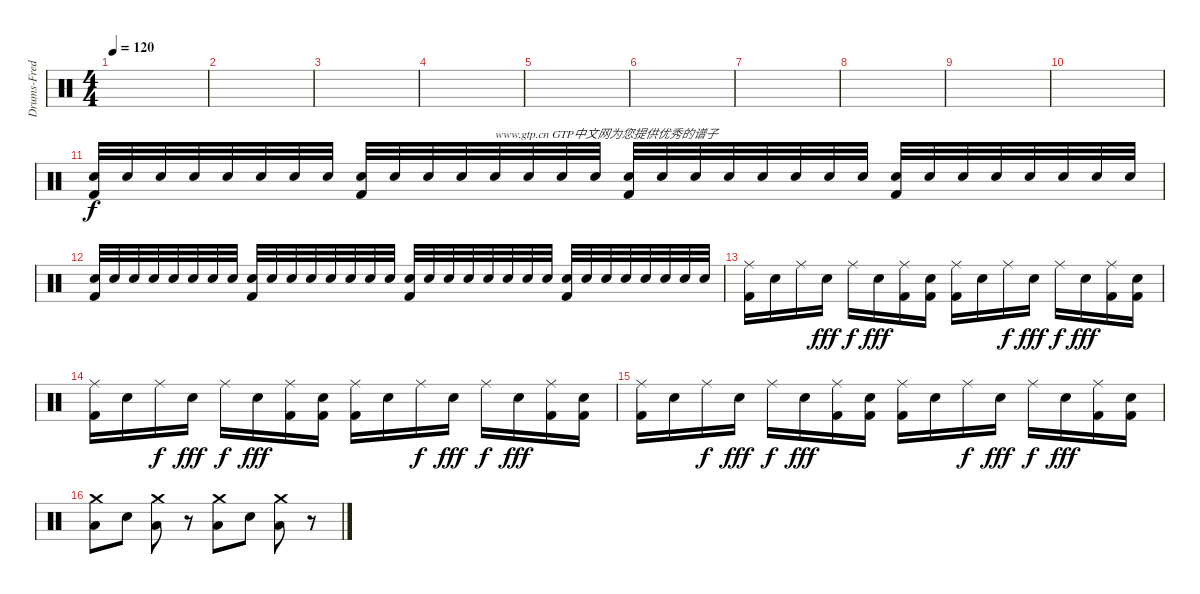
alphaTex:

\track ("Drums-Fred" "Drums-Fred") {instrument percussion}
\staff {score}
\articulation defaults
\ts (4 4)
\tempo 120
\clef neutral
\ks c
|
|
|
|
|
|
|
|
|
|
("Snare (hit) 2" "Kick (hit) 2").32 "Snare (hit) 2".32 "Snare (hit) 2".32 "Snare (hit) 2".32 "Snare (hit) 2".32 "Snare (hit) 2".32 "Snare (hit) 2".32 "Snare (hit) 2".32 ("Snare (hit) 2" "Kick (hit) 2").32 "Snare (hit) 2".32 "Snare (hit) 2".32 "Snare (hit) 2".32 "Snare (hit) 2".32{txt "www.gtp.cn GTP中文网为您提供优秀的谱子"} "Snare (hit) 2".32 "Snare (hit) 2".32 "Snare (hit) 2".32 ("Snare (hit) 2" "Kick (hit) 2").32 "Snare (hit) 2".32 "Snare (hit) 2".32 "Snare (hit) 2".32 "Snare (hit) 2".32 "Snare (hit) 2".32 "Snare (hit) 2".32 "Snare (hit) 2".32 ("Snare (hit) 2" "Kick (hit) 2").32 "Snare (hit) 2".32 "Snare (hit) 2".32 "Snare (hit) 2".32 "Snare (hit) 2".32 "Snare (hit) 2".32 "Snare (hit) 2".32 "Snare (hit) 2".32 |
("Snare (hit) 2" "Kick (hit) 2").32 "Snare (hit) 2".32 "Snare (hit) 2".32 "Snare (hit) 2".32 "Snare (hit) 2".32 "Snare (hit) 2".32 "Snare (hit) 2".32 "Snare (hit) 2".32 ("Snare (hit) 2" "Kick (hit) 2").32 "Snare (hit) 2".32 "Snare (hit) 2".32 "Snare (hit) 2".32 "Snare (hit) 2".32 "Snare (hit) 2".32 "Snare (hit) 2".32 "Snare (hit) 2".32 ("Snare (hit) 2" "Kick (hit) 2").32 "Snare (hit) 2".32 "Snare (hit) 2".32 "Snare (hit) 2".32 "Snare (hit) 2".32 "Snare (hit) 2".32 "Snare (hit) 2".32 "Snare (hit) 2".32 ("Snare (hit) 2" "Kick (hit) 2").32 "Snare (hit) 2".32 "Snare (hit) 2".32 "Snare (hit) 2".32 "Snare (hit) 2".32 "Snare (hit) 2".32 "Snare (hit) 2".32 "Snare (hit) 2".32 |
("Kick (hit) 2" "Ride (middle)").16 "Snare (hit) 2".16 "Ride (middle)".16{dy f} "Snare (hit) 2".16{dy fff} "Ride (middle)".16{dy f} "Snare (hit) 2".16{dy fff} ("Kick (hit) 2" "Ride (middle)").16 ("Kick (hit) 2" "Snare (hit) 2").16 ("Kick (hit) 2" "Ride (middle)").16 "Snare (hit) 2".16 "Ride (middle)".16{dy f} "Snare (hit) 2".16{dy fff} "Ride (middle)".16{dy f} "Snare (hit) 2".16{dy fff} ("Kick (hit) 2" "Ride (middle)").16 ("Kick (hit) 2" "Snare (hit) 2").16 |
("Kick (hit) 2" "Ride (middle)").16 "Snare (hit) 2".16 "Ride (middle)".16{dy f} "Snare (hit) 2".16{dy fff} "Ride (middle)".16{dy f} "Snare (hit) 2".16{dy fff} ("Kick (hit) 2" "Ride (middle)").16 ("Kick (hit) 2" "Snare (hit) 2").16 ("Kick (hit) 2" "Ride (middle)").16 "Snare (hit) 2".16 "Ride (middle)".16{dy f} "Snare (hit) 2".16{dy fff} "Ride (middle)".16{dy f} "Snare (hit) 2".16{dy fff} ("Kick (hit) 2" "Ride (middle)").16 ("Kick (hit) 2" "Snare (hit) 2").16 |
("Kick (hit) 2" "Ride (middle)").16 "Snare (hit) 2".16 "Ride (middle)".16{dy f} "Snare (hit) 2".16{dy fff} "Ride (middle)".16{dy f} "Snare (hit) 2".16{dy fff} ("Kick (hit) 2" "Ride (middle)").16 ("Kick (hit) 2" "Snare (hit) 2").16 ("Kick (hit) 2" "Ride (middle)").16 "Snare (hit) 2".16 "Ride (middle)".16{dy f} "Snare (hit) 2".16{dy fff} "Ride (middle)".16{dy f} "Snare (hit) 2".16{dy fff} ("Kick (hit) 2" "Ride (middle)").16 ("Kick (hit) 2" "Snare (hit) 2").16 |
("Low Tom (hit)" "Crash medium (hit)").8 "Snare (hit) 2".8 ("Low Tom (hit)" "Crash medium (hit)").8 r.8 ("Low Tom (hit)" "Crash medium (hit)").8 "Snare (hit) 2".8 ("Low Tom (hit)" "Crash medium (hit)").8 r.8
